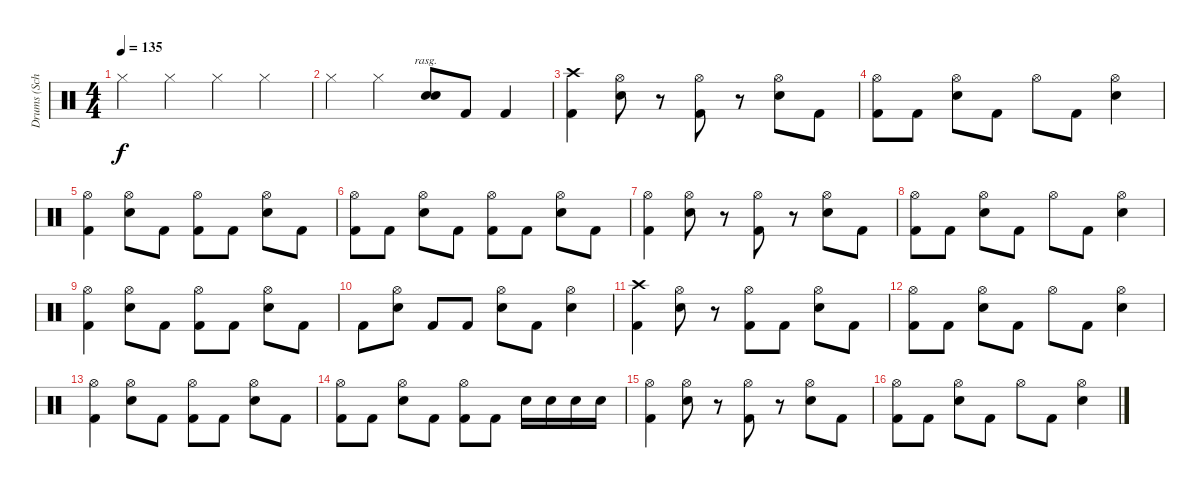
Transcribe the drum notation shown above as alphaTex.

\track ("Drums (Schill)" "Drums (Sch") {instrument percussion}
\staff {score}
\articulation defaults
\ts (4 4)
\tempo 135
\clef neutral
\ks c "Hi-Hat (closed)".4{dy f} "Hi-Hat (closed)".4 "Hi-Hat (closed)".4 "Hi-Hat (closed)".4
|
"Hi-Hat (closed)".4 "Hi-Hat (closed)".4 ("Electric Snare (hit)" "Electric Snare (hit)").8{bu 240 rasg ii} "Kick (hit) 2".8 "Kick (hit) 2".4 |
("Crash high (hit)" "Kick (hit) 2").4 ("Hi-Hat (open)" "Electric Snare (hit)").8 r.8 ("Hi-Hat (open)" "Kick (hit) 2").8 r.8 ("Hi-Hat (open)" "Electric Snare (hit)").8 "Kick (hit) 2".8 |
("Hi-Hat (open)" "Kick (hit) 2").8 "Kick (hit) 2".8 ("Hi-Hat (open)" "Electric Snare (hit)").8 "Kick (hit) 2".8 "Hi-Hat (open)".8 "Kick (hit) 2".8 ("Hi-Hat (open)" "Electric Snare (hit)").4 |
("Hi-Hat (open)" "Kick (hit) 2").4 ("Hi-Hat (open)" "Electric Snare (hit)").8 "Kick (hit) 2".8 ("Hi-Hat (open)" "Kick (hit) 2").8 "Kick (hit) 2".8 ("Hi-Hat (open)" "Electric Snare (hit)").8 "Kick (hit) 2".8 |
("Hi-Hat (open)" "Kick (hit) 2").8 "Kick (hit) 2".8 ("Hi-Hat (open)" "Electric Snare (hit)").8 "Kick (hit) 2".8 ("Hi-Hat (open)" "Kick (hit) 2").8 "Kick (hit) 2".8 ("Hi-Hat (open)" "Electric Snare (hit)").8 "Kick (hit) 2".8 |
("Hi-Hat (open)" "Kick (hit) 2").4 ("Hi-Hat (open)" "Electric Snare (hit)").8 r.8 ("Hi-Hat (open)" "Kick (hit) 2").8 r.8 ("Hi-Hat (open)" "Electric Snare (hit)").8 "Kick (hit) 2".8 |
("Hi-Hat (open)" "Kick (hit) 2").8 "Kick (hit) 2".8 ("Hi-Hat (open)" "Electric Snare (hit)").8 "Kick (hit) 2".8 "Hi-Hat (open)".8 "Kick (hit) 2".8 ("Hi-Hat (open)" "Electric Snare (hit)").4 |
("Hi-Hat (open)" "Kick (hit) 2").4 ("Hi-Hat (open)" "Electric Snare (hit)").8 "Kick (hit) 2".8 ("Hi-Hat (open)" "Kick (hit) 2").8 "Kick (hit) 2".8 ("Hi-Hat (open)" "Electric Snare (hit)").8 "Kick (hit) 2".8 |
"Kick (hit) 2".8 ("Hi-Hat (open)" "Electric Snare (hit)").8 "Kick (hit) 2".8 "Kick (hit) 2".8 ("Hi-Hat (open)" "Electric Snare (hit)").8 "Kick (hit) 2".8 ("Hi-Hat (open)" "Electric Snare (hit)").4 |
("Crash high (hit)" "Kick (hit) 2").4 ("Hi-Hat (open)" "Electric Snare (hit)").8 r.8 ("Hi-Hat (open)" "Kick (hit) 2").8 "Kick (hit) 2".8 ("Hi-Hat (open)" "Electric Snare (hit)").8 "Kick (hit) 2".8 |
("Hi-Hat (open)" "Kick (hit) 2").8 "Kick (hit) 2".8 ("Hi-Hat (open)" "Electric Snare (hit)").8 "Kick (hit) 2".8 "Hi-Hat (open)".8 "Kick (hit) 2".8 ("Hi-Hat (open)" "Electric Snare (hit)").4 |
("Hi-Hat (open)" "Kick (hit) 2").4 ("Hi-Hat (open)" "Electric Snare (hit)").8 "Kick (hit) 2".8 ("Hi-Hat (open)" "Kick (hit) 2").8 "Kick (hit) 2".8 ("Hi-Hat (open)" "Electric Snare (hit)").8 "Kick (hit) 2".8 |
("Hi-Hat (open)" "Kick (hit) 2").8 "Kick (hit) 2".8 ("Hi-Hat (open)" "Electric Snare (hit)").8 "Kick (hit) 2".8 ("Hi-Hat (open)" "Kick (hit) 2").8 "Kick (hit) 2".8 "Electric Snare (hit)".16 "Electric Snare (hit)".16 "Electric Snare (hit)".16 "Electric Snare (hit)".16 |
("Hi-Hat (open)" "Kick (hit) 2").4 ("Hi-Hat (open)" "Electric Snare (hit)").8 r.8 ("Hi-Hat (open)" "Kick (hit) 2").8 r.8 ("Hi-Hat (open)" "Electric Snare (hit)").8 "Kick (hit) 2".8 |
("Hi-Hat (open)" "Kick (hit) 2").8 "Kick (hit) 2".8 ("Hi-Hat (open)" "Electric Snare (hit)").8 "Kick (hit) 2".8 "Hi-Hat (open)".8 "Kick (hit) 2".8 ("Hi-Hat (open)" "Electric Snare (hit)").4
